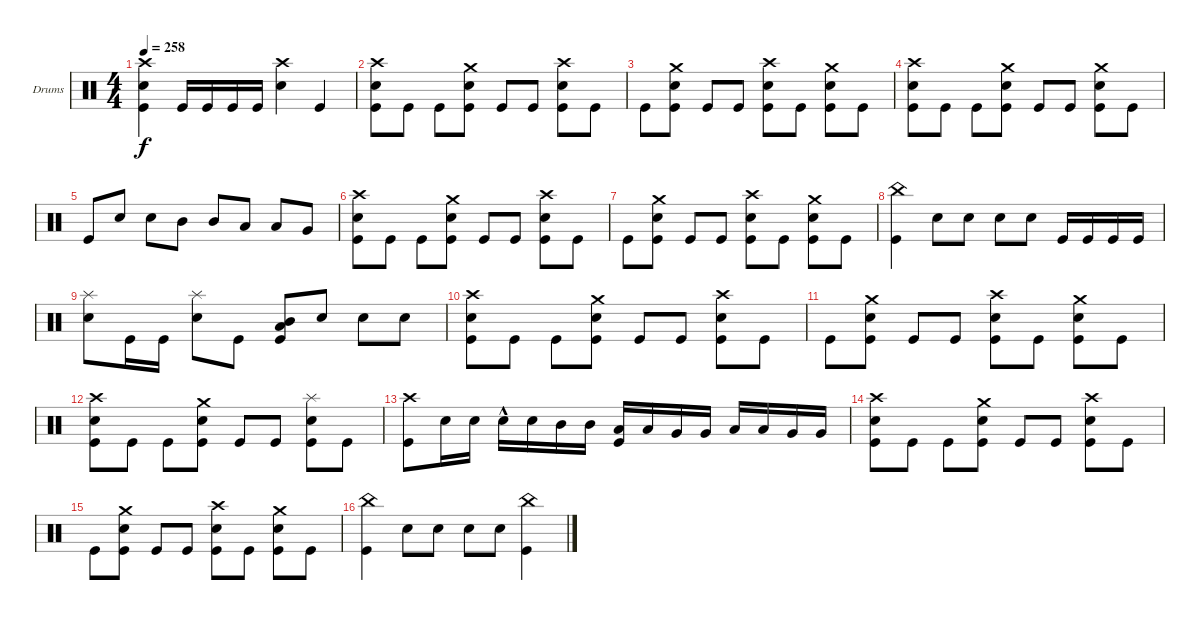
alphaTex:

\defaultSystemsLayout 4
\bracketExtendMode groupsimilarinstruments
\firstSystemTrackNameOrientation horizontal
\otherSystemsTrackNameOrientation horizontal
\track ("Drumkit" "Drums") {instrument percussion}
\staff {score}
\articulation defaults
\ts (4 4)
\tempo 258
\clef neutral
\ks c
("Kick (hit)" "Snare (hit) 2" "Crash high (hit)").4{dy f} "Kick (hit)".16 "Kick (hit)".16 "Kick (hit)".16 "Kick (hit)".16 ("Snare (hit) 2" "Crash high (hit)").4 "Kick (hit)".4 |
("Kick (hit)" "Snare (hit) 2" "Crash high (hit)").8 "Kick (hit)".8 "Kick (hit)".8 ("Kick (hit)" "Snare (hit) 2" "Crash medium (hit)").8 "Kick (hit)".8 "Kick (hit)".8 ("Kick (hit)" "Snare (hit) 2" "Crash high (hit)").8 "Kick (hit)".8 |
"Kick (hit)".8 ("Kick (hit)" "Snare (hit) 2" "Crash medium (hit)").8 "Kick (hit)".8 "Kick (hit)".8 ("Kick (hit)" "Snare (hit) 2" "Crash high (hit)").8 "Kick (hit)".8 ("Kick (hit)" "Snare (hit) 2" "Crash medium (hit)").8 "Kick (hit)".8 |
("Kick (hit)" "Snare (hit) 2" "Crash high (hit)").8 "Kick (hit)".8 "Kick (hit)".8 ("Kick (hit)" "Snare (hit) 2" "Crash medium (hit)").8 "Kick (hit)".8 "Kick (hit)".8 ("Kick (hit)" "Snare (hit) 2" "Crash medium (hit)").8 "Kick (hit)".8 |
"Kick (hit)".8 "Snare (hit) 2".8 "Snare (hit) 2".8 "Mid Tom (hit)".8 "Mid Tom (hit)".8 "Low Tom (hit)".8 "Low Tom (hit)".8 "Very Low Tom (hit)".8 |
("Kick (hit)" "Snare (hit) 2" "Crash high (hit)").8 "Kick (hit)".8 "Kick (hit)".8 ("Kick (hit)" "Snare (hit) 2" "Crash medium (hit)").8 "Kick (hit)".8 "Kick (hit)".8 ("Kick (hit)" "Snare (hit) 2" "Crash high (hit)").8 "Kick (hit)".8 |
"Kick (hit)".8 ("Kick (hit)" "Snare (hit) 2" "Crash medium (hit)").8 "Kick (hit)".8 "Kick (hit)".8 ("Kick (hit)" "Snare (hit) 2" "Crash high (hit)").8 "Kick (hit)".8 ("Kick (hit)" "Snare (hit) 2" "Crash medium (hit)").8 "Kick (hit)".8 |
("Kick (hit)" "China (hit)").4 "Snare (hit) 2".8 "Snare (hit) 2".8 "Snare (hit) 2".8 "Snare (hit) 2".8 "Kick (hit)".16 "Kick (hit)".16 "Kick (hit)".16 "Kick (hit)".16 |
("Snare (hit) 2" "Splash (hit)").8 "Kick (hit)".16 "Kick (hit)".16 ("Snare (hit) 2" "Splash (hit)").8 "Kick (hit)".8 ("Mid Tom (hit)" "Low Tom (hit)" "Kick (hit)").8 "Snare (hit) 2".8 "Snare (hit) 2".8 "Snare (hit) 2".8 |
("Kick (hit)" "Snare (hit) 2" "Crash high (hit)").8 "Kick (hit)".8 "Kick (hit)".8 ("Kick (hit)" "Snare (hit) 2" "Crash medium (hit)").8 "Kick (hit)".8 "Kick (hit)".8 ("Kick (hit)" "Snare (hit) 2" "Crash high (hit)").8 "Kick (hit)".8 |
"Kick (hit)".8 ("Kick (hit)" "Snare (hit) 2" "Crash medium (hit)").8 "Kick (hit)".8 "Kick (hit)".8 ("Kick (hit)" "Snare (hit) 2" "Crash high (hit)").8 "Kick (hit)".8 ("Kick (hit)" "Snare (hit) 2" "Crash medium (hit)").8 "Kick (hit)".8 |
("Kick (hit)" "Snare (hit) 2" "Crash high (hit)").8 "Kick (hit)".8 "Kick (hit)".8 ("Kick (hit)" "Snare (hit) 2" "Crash medium (hit)").8 "Kick (hit)".8 "Kick (hit)".8 ("Kick (hit)" "Snare (hit) 2" "Splash (hit)").8 "Kick (hit)".8 |
("Crash high (hit)" "Kick (hit)").8 "Snare (hit) 2".16 "Snare (hit) 2".16 "Snare (hit) 2"{hac}.16 "Snare (hit) 2".16 "Mid Tom (hit)".16 "Mid Tom (hit)".16 ("Low Tom (hit)" "Kick (hit)").16 "Low Tom (hit)".16 "Very Low Tom (hit)".16 "Very Low Tom (hit)".16 "Low Tom (hit)".16 "Low Tom (hit)".16 "Very Low Tom (hit)".16 "Very Low Tom (hit)".16 |
("Kick (hit)" "Snare (hit) 2" "Crash high (hit)").8 "Kick (hit)".8 "Kick (hit)".8 ("Kick (hit)" "Snare (hit) 2" "Crash medium (hit)").8 "Kick (hit)".8 "Kick (hit)".8 ("Kick (hit)" "Snare (hit) 2" "Crash high (hit)").8 "Kick (hit)".8 |
"Kick (hit)".8 ("Kick (hit)" "Snare (hit) 2" "Crash medium (hit)").8 "Kick (hit)".8 "Kick (hit)".8 ("Kick (hit)" "Snare (hit) 2" "Crash high (hit)").8 "Kick (hit)".8 ("Kick (hit)" "Snare (hit) 2" "Crash medium (hit)").8 "Kick (hit)".8 |
("China (hit)" "Kick (hit)").4 "Snare (hit) 2".8 "Snare (hit) 2".8 "Snare (hit) 2".8 "Snare (hit) 2".8 ("China (hit)" "Kick (hit)").4
